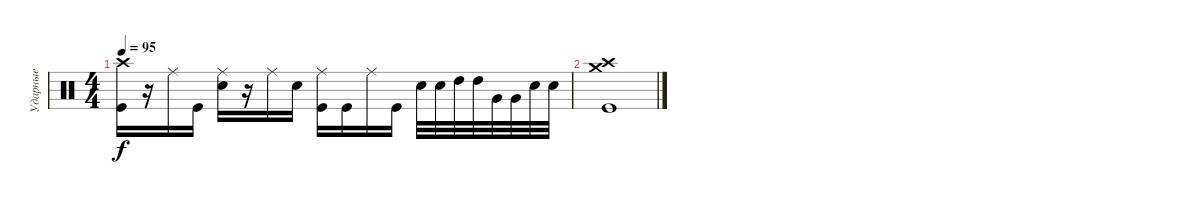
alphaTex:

\track ("Ударные" "Ударные") {instrument percussion}
\staff {score}
\articulation defaults
\ts (4 4)
\tempo 95
\clef neutral
\ks c
("Kick (hit)" "Crash high (hit)").16{dy f} r.16 "Ride (middle)".16 "Kick (hit)".16 ("Ride (middle)" "Snare (hit) 2").16 r.16 "Ride (middle)".16 "Snare (hit) 2".16 ("Ride (middle)" "Kick (hit)").16 "Kick (hit)".16 "Ride (middle)".16 "Kick (hit)".16 "Snare (hit) 2".32 "Snare (hit) 2".32 "High Tom (hit)".32 "High Tom (hit)".32 "Very Low Tom (hit)".32 "Very Low Tom (hit)".32 "Snare (hit) 2".32 "Snare (hit) 2".32 |
("Kick (hit)" "Crash high (hit)" "Crash medium (hit)").1
